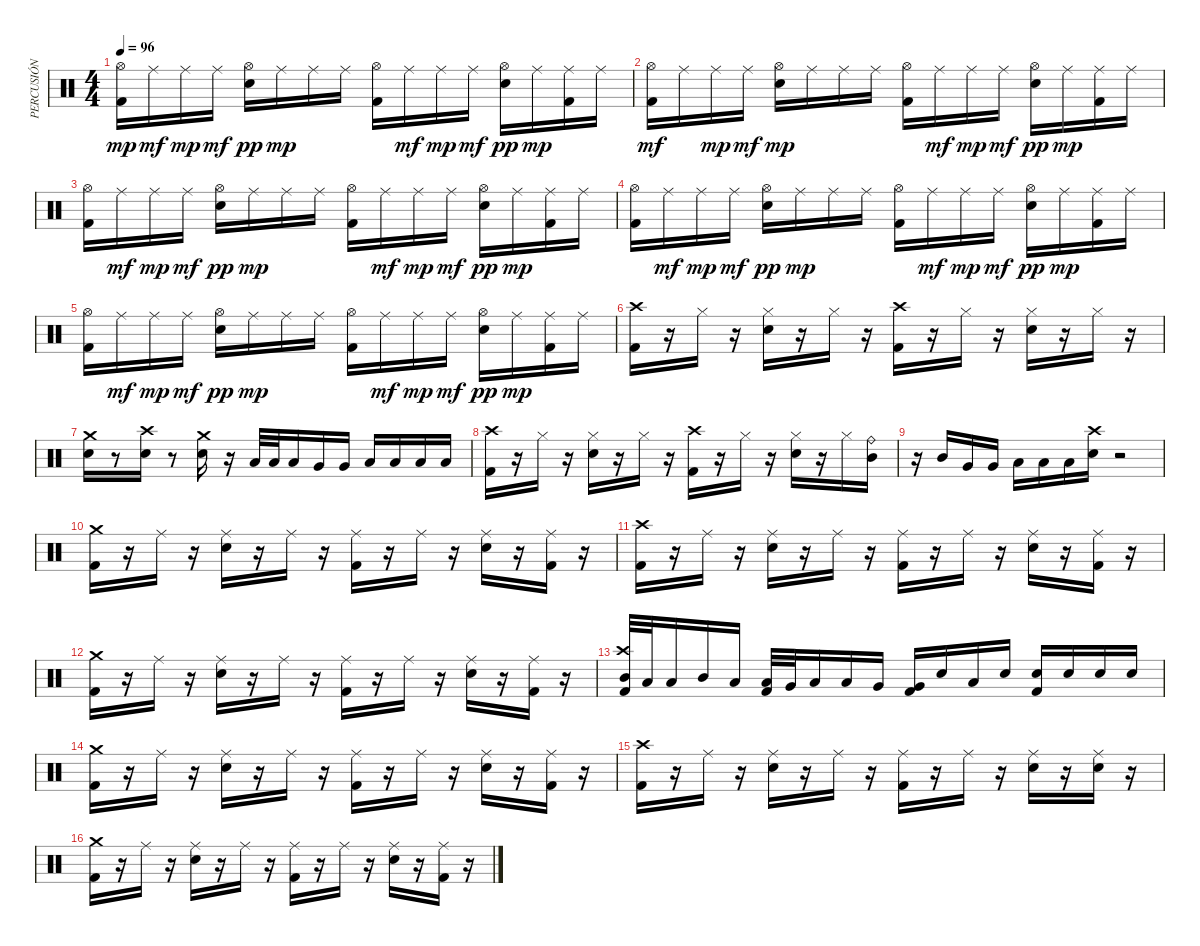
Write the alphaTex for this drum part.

\track ("PERCUSIÓN" "PERCUSIÓN") {instrument percussion}
\staff {score}
\articulation defaults
\ts (4 4)
\tempo 96
\clef neutral
\ks c
("Hi-Hat (open)" "Kick (hit) 2").16{dy mp} "Ride (middle)".16{dy mf} "Ride (middle)".16{dy mp} "Ride (middle)".16{dy mf} ("Snare (hit) 2" "Hi-Hat (open)").16{dy pp} "Ride (middle)".16{dy mp} "Ride (middle)".16 "Ride (middle)".16 ("Kick (hit) 2" "Hi-Hat (open)").16 "Ride (middle)".16{dy mf} "Ride (middle)".16{dy mp} "Ride (middle)".16{dy mf} ("Snare (hit) 2" "Hi-Hat (open)").16{dy pp} "Ride (middle)".16{dy mp} ("Kick (hit) 2" "Ride (middle)").16 "Ride (middle)".16 |
("Kick (hit) 2" "Hi-Hat (open)").16{dy mf} "Ride (middle)".16 "Ride (middle)".16{dy mp} "Ride (middle)".16{dy mf} ("Snare (hit) 2" "Hi-Hat (open)").16{dy mp} "Ride (middle)".16 "Ride (middle)".16 "Ride (middle)".16 ("Kick (hit) 2" "Hi-Hat (open)").16 "Ride (middle)".16{dy mf} "Ride (middle)".16{dy mp} "Ride (middle)".16{dy mf} ("Snare (hit) 2" "Hi-Hat (open)").16{dy pp} "Ride (middle)".16{dy mp} ("Kick (hit) 2" "Ride (middle)").16 "Ride (middle)".16 |
("Kick (hit) 2" "Hi-Hat (open)").16 "Ride (middle)".16{dy mf} "Ride (middle)".16{dy mp} "Ride (middle)".16{dy mf} ("Snare (hit) 2" "Hi-Hat (open)").16{dy pp} "Ride (middle)".16{dy mp} "Ride (middle)".16 "Ride (middle)".16 ("Kick (hit) 2" "Hi-Hat (open)").16 "Ride (middle)".16{dy mf} "Ride (middle)".16{dy mp} "Ride (middle)".16{dy mf} ("Snare (hit) 2" "Hi-Hat (open)").16{dy pp} "Ride (middle)".16{dy mp} ("Kick (hit) 2" "Ride (middle)").16 "Ride (middle)".16 |
("Kick (hit) 2" "Hi-Hat (open)").16 "Ride (middle)".16{dy mf} "Ride (middle)".16{dy mp} "Ride (middle)".16{dy mf} ("Snare (hit) 2" "Hi-Hat (open)").16{dy pp} "Ride (middle)".16{dy mp} "Ride (middle)".16 "Ride (middle)".16 ("Kick (hit) 2" "Hi-Hat (open)").16 "Ride (middle)".16{dy mf} "Ride (middle)".16{dy mp} "Ride (middle)".16{dy mf} ("Snare (hit) 2" "Hi-Hat (open)").16{dy pp} "Ride (middle)".16{dy mp} ("Kick (hit) 2" "Ride (middle)").16 "Ride (middle)".16 |
("Kick (hit) 2" "Hi-Hat (open)").16 "Ride (middle)".16{dy mf} "Ride (middle)".16{dy mp} "Ride (middle)".16{dy mf} ("Snare (hit) 2" "Hi-Hat (open)").16{dy pp} "Ride (middle)".16{dy mp} "Ride (middle)".16 "Ride (middle)".16 ("Kick (hit) 2" "Hi-Hat (open)").16 "Ride (middle)".16{dy mf} "Ride (middle)".16{dy mp} "Ride (middle)".16{dy mf} ("Snare (hit) 2" "Hi-Hat (open)").16{dy pp} "Ride (middle)".16{dy mp} ("Kick (hit) 2" "Ride (middle)").16 "Ride (middle)".16 |
("Kick (hit) 2" "Crash high (hit)").16 r.16 "Hi-Hat (closed)".16 r.16 ("Snare (hit) 2" "Hi-Hat (closed)").16 r.16 "Hi-Hat (closed)".16 r.16 ("Crash high (hit)" "Kick (hit) 2").16 r.16 "Hi-Hat (closed)".16 r.16 ("Snare (hit) 2" "Hi-Hat (closed)").16 r.16 "Hi-Hat (closed)".16 r.16 |
("Snare (hit) 2" "Crash medium (hit)").16 r.8 ("Snare (hit) 2" "Crash high (hit)").16 r.8 ("Snare (hit) 2" "Crash medium (hit)").16 r.16 "Low Tom (hit)".32 "Low Tom (hit)".32 "Low Tom (hit)".16 "Very Low Tom (hit)".16 "Very Low Tom (hit)".16 "Low Floor Tom (hit)".16 "Low Floor Tom (hit)".16 "Low Floor Tom (hit)".16 "Low Floor Tom (hit)".16 |
("Crash high (hit)" "Kick (hit) 2").16 r.16 "Hi-Hat (closed)".16 r.16 ("Snare (hit) 2" "Hi-Hat (closed)").16 r.16 "Hi-Hat (closed)".16 r.16 ("Crash high (hit)" "Kick (hit) 2").16 r.16 "Hi-Hat (closed)".16 r.16 ("Snare (hit) 2" "Hi-Hat (closed)").16 r.16 "Hi-Hat (closed)".16 ("Mid Tom (hit)" "Ride (bell)").16 |
r.16 "Mid Tom (hit)".16 "Very Low Tom (hit)".16 "Very Low Tom (hit)".16 "Low Floor Tom (hit)".16 "Low Floor Tom (hit)".16 "Low Floor Tom (hit)".16 ("Snare (hit) 2" "Crash high (hit)").16 r.2 |
("Kick (hit) 2" "Crash medium (hit)").16 r.16 "Ride (middle)".16 r.16 ("Snare (hit) 2" "Ride (middle)").16 r.16 "Ride (middle)".16 r.16 ("Kick (hit) 2" "Ride (middle)").16 r.16 "Ride (middle)".16 r.16 ("Snare (hit) 2" "Ride (middle)").16 r.16 ("Kick (hit) 2" "Ride (middle)").16 r.16 |
("Kick (hit) 2" "Crash high (hit)").16 r.16 "Ride (middle)".16 r.16 ("Snare (hit) 2" "Ride (middle)").16 r.16 "Ride (middle)".16 r.16 ("Kick (hit) 2" "Ride (middle)").16 r.16 "Ride (middle)".16 r.16 ("Snare (hit) 2" "Ride (middle)").16 r.16 ("Kick (hit) 2" "Ride (middle)").16 r.16 |
("Crash medium (hit)" "Kick (hit) 2").16 r.16 "Ride (middle)".16 r.16 ("Snare (hit) 2" "Ride (middle)").16 r.16 "Ride (middle)".16 r.16 ("Kick (hit) 2" "Ride (middle)").16 r.16 "Ride (middle)".16 r.16 ("Snare (hit) 2" "Ride (middle)").16 r.16 ("Kick (hit) 2" "Ride (middle)").16 r.16 |
("Mid Tom (hit)" "Crash high (hit)" "Kick (hit) 2").32 "Low Tom (hit)".32 "Low Floor Tom (hit)".16 "Mid Tom (hit)".16 "Low Floor Tom (hit)".16 ("Low Tom (hit)" "Kick (hit) 2").32 "Very Low Tom (hit)".32 "Low Tom (hit)".16 "Low Floor Tom (hit)".16 "Very Low Tom (hit)".16 ("Very Low Tom (hit)" "Kick (hit) 2").16 "Electric Snare (hit)".16 "Low Floor Tom (hit)".16 "Electric Snare (hit)".16 ("Kick (hit) 2" "Snare (hit) 2").16 "Snare (hit) 2".16 "Snare (hit) 2".16 "Snare (hit) 2".16 |
("Kick (hit) 2" "Crash medium (hit)").16 r.16 "Ride (middle)".16 r.16 ("Snare (hit) 2" "Ride (middle)").16 r.16 "Ride (middle)".16 r.16 ("Kick (hit) 2" "Ride (middle)").16 r.16 "Ride (middle)".16 r.16 ("Snare (hit) 2" "Ride (middle)").16 r.16 ("Kick (hit) 2" "Ride (middle)").16 r.16 |
("Kick (hit) 2" "Crash high (hit)").16 r.16 "Ride (middle)".16 r.16 ("Snare (hit) 2" "Ride (middle)").16 r.16 "Ride (middle)".16 r.16 ("Kick (hit) 2" "Ride (middle)").16 r.16 "Ride (middle)".16 r.16 ("Snare (hit) 2" "Ride (middle)").16 r.16 ("Ride (middle)" "Snare (hit) 2").16 r.16 |
("Crash medium (hit)" "Kick (hit) 2").16 r.16 "Ride (middle)".16 r.16 ("Snare (hit) 2" "Ride (middle)").16 r.16 "Ride (middle)".16 r.16 ("Kick (hit) 2" "Ride (middle)").16 r.16 "Ride (middle)".16 r.16 ("Snare (hit) 2" "Ride (middle)").16 r.16 ("Kick (hit) 2" "Ride (middle)").16 r.16
